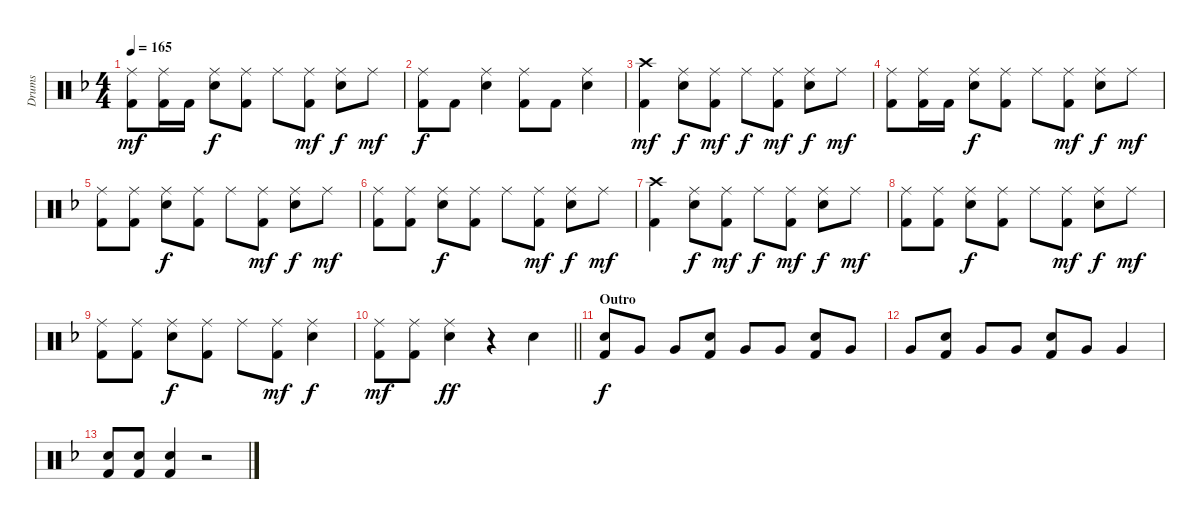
\track ("Drums" "Drums") {instrument percussion}
\staff {score}
\articulation defaults
\ts (4 4)
\tempo 165
\clef neutral
\ks f
("Ride (middle)" "Kick (hit) 2").8{dy mf} ("Ride (middle)" "Kick (hit) 2").16 "Kick (hit) 2".16 ("Ride (middle)" "Electric Snare (hit)").8{dy f} ("Ride (middle)" "Kick (hit) 2").8 "Ride (middle)".8 ("Ride (middle)" "Kick (hit) 2").8{dy mf} ("Ride (middle)" "Electric Snare (hit)").8{dy f} "Ride (middle)".8{dy mf} |
("Ride (middle)" "Kick (hit) 2").8{dy f} "Kick (hit) 2".8 ("Ride (middle)" "Electric Snare (hit)").4 ("Ride (middle)" "Kick (hit) 2").8 "Kick (hit) 2".8 ("Ride (middle)" "Electric Snare (hit)").4 |
("Crash high (hit)" "Kick (hit) 2").4{dy mf} ("Ride (middle)" "Electric Snare (hit)").8{dy f} ("Ride (middle)" "Kick (hit) 2").8{dy mf} "Ride (middle)".8{dy f} ("Ride (middle)" "Kick (hit) 2").8{dy mf} ("Ride (middle)" "Electric Snare (hit)").8{dy f} "Ride (middle)".8{dy mf} |
("Ride (middle)" "Kick (hit) 2").8 ("Ride (middle)" "Kick (hit) 2").16 "Kick (hit) 2".16 ("Ride (middle)" "Electric Snare (hit)").8{dy f} ("Ride (middle)" "Kick (hit) 2").8 "Ride (middle)".8 ("Ride (middle)" "Kick (hit) 2").8{dy mf} ("Ride (middle)" "Electric Snare (hit)").8{dy f} "Ride (middle)".8{dy mf} |
("Ride (middle)" "Kick (hit) 2").8 ("Ride (middle)" "Kick (hit) 2").8 ("Ride (middle)" "Electric Snare (hit)").8{dy f} ("Ride (middle)" "Kick (hit) 2").8 "Ride (middle)".8 ("Ride (middle)" "Kick (hit) 2").8{dy mf} ("Ride (middle)" "Electric Snare (hit)").8{dy f} "Ride (middle)".8{dy mf} |
("Ride (middle)" "Kick (hit) 2").8 ("Ride (middle)" "Kick (hit) 2").8 ("Ride (middle)" "Electric Snare (hit)").8{dy f} ("Ride (middle)" "Kick (hit) 2").8 "Ride (middle)".8 ("Ride (middle)" "Kick (hit) 2").8{dy mf} ("Ride (middle)" "Electric Snare (hit)").8{dy f} "Ride (middle)".8{dy mf} |
("Crash high (hit)" "Kick (hit) 2").4 ("Ride (middle)" "Electric Snare (hit)").8{dy f} ("Ride (middle)" "Kick (hit) 2").8{dy mf} "Ride (middle)".8{dy f} ("Ride (middle)" "Kick (hit) 2").8{dy mf} ("Ride (middle)" "Electric Snare (hit)").8{dy f} "Ride (middle)".8{dy mf} |
("Ride (middle)" "Kick (hit) 2").8 ("Ride (middle)" "Kick (hit) 2").8 ("Ride (middle)" "Electric Snare (hit)").8{dy f} ("Ride (middle)" "Kick (hit) 2").8 "Ride (middle)".8 ("Ride (middle)" "Kick (hit) 2").8{dy mf} ("Ride (middle)" "Electric Snare (hit)").8{dy f} "Ride (middle)".8{dy mf} |
("Ride (middle)" "Kick (hit) 2").8 ("Ride (middle)" "Kick (hit) 2").8 ("Ride (middle)" "Electric Snare (hit)").8{dy f} ("Ride (middle)" "Kick (hit) 2").8 "Ride (middle)".8 ("Ride (middle)" "Kick (hit) 2").8{dy mf} ("Ride (middle)" "Electric Snare (hit)").4{dy f} |
\barLineRight lightlight
("Ride (middle)" "Kick (hit) 2").8{dy mf} ("Ride (middle)" "Kick (hit) 2").8 ("Ride (middle)" "Electric Snare (hit)").4{dy ff} r.4 "Electric Snare (hit)".4 |
\section ("" "Outro")
("Electric Snare (hit)" "Kick (hit) 2").8{dy f} "Very Low Tom (hit)".8 "Very Low Tom (hit)".8 ("Electric Snare (hit)" "Kick (hit) 2").8 "Very Low Tom (hit)".8 "Very Low Tom (hit)".8 ("Electric Snare (hit)" "Kick (hit) 2").8 "Very Low Tom (hit)".8 |
"Very Low Tom (hit)".8 ("Electric Snare (hit)" "Kick (hit) 2").8 "Very Low Tom (hit)".8 "Very Low Tom (hit)".8 ("Electric Snare (hit)" "Kick (hit) 2").8 "Very Low Tom (hit)".8 "Very Low Tom (hit)".4 |
("Electric Snare (hit)" "Kick (hit) 2").8 ("Electric Snare (hit)" "Kick (hit) 2").8 ("Electric Snare (hit)" "Kick (hit) 2").4 r.2
